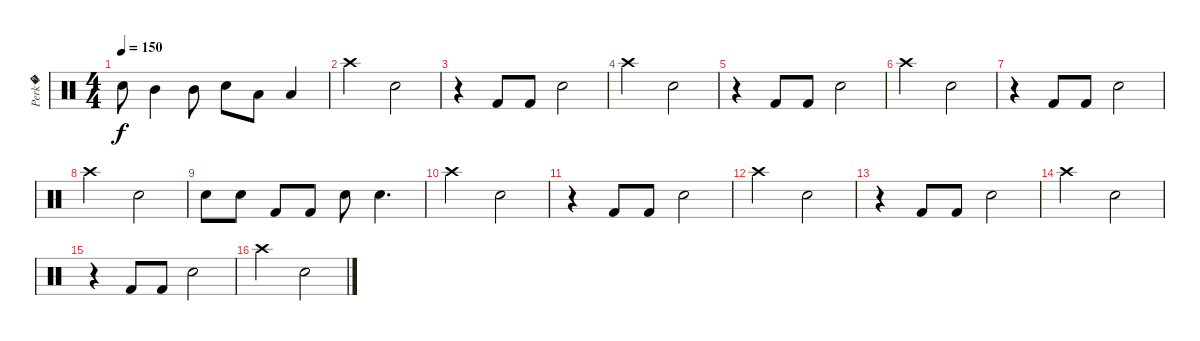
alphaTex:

\track ("Perk�" "Perk�") {instrument percussion}
\staff {score}
\articulation defaults
\ts (4 4)
\tempo 150
\clef neutral
\ks c "Snare (hit) 2".8{dy f} "Mid Tom (hit)".4 "Mid Tom (hit)".8 "Snare (hit) 2".8 "Low Tom (hit)".8 "Low Tom (hit)".4
|
"Crash high (hit)".2 "Snare (hit) 2".2 |
r.4 "Kick (hit) 2".8 "Kick (hit) 2".8 "Snare (hit) 2".2 |
"Crash high (hit)".2 "Snare (hit) 2".2 |
r.4 "Kick (hit) 2".8 "Kick (hit) 2".8 "Snare (hit) 2".2 |
"Crash high (hit)".2 "Snare (hit) 2".2 |
r.4 "Kick (hit) 2".8 "Kick (hit) 2".8 "Snare (hit) 2".2 |
"Crash high (hit)".2 "Snare (hit) 2".2 |
"Snare (hit) 2".8 "Snare (hit) 2".8 "Kick (hit) 2".8 "Kick (hit) 2".8 "Snare (hit) 2".8 "Snare (hit) 2".4{d} |
"Crash high (hit)".2 "Snare (hit) 2".2 |
r.4 "Kick (hit) 2".8 "Kick (hit) 2".8 "Snare (hit) 2".2 |
"Crash high (hit)".2 "Snare (hit) 2".2 |
r.4 "Kick (hit) 2".8 "Kick (hit) 2".8 "Snare (hit) 2".2 |
"Crash high (hit)".2 "Snare (hit) 2".2 |
r.4 "Kick (hit) 2".8 "Kick (hit) 2".8 "Snare (hit) 2".2 |
"Crash high (hit)".2 "Snare (hit) 2".2
